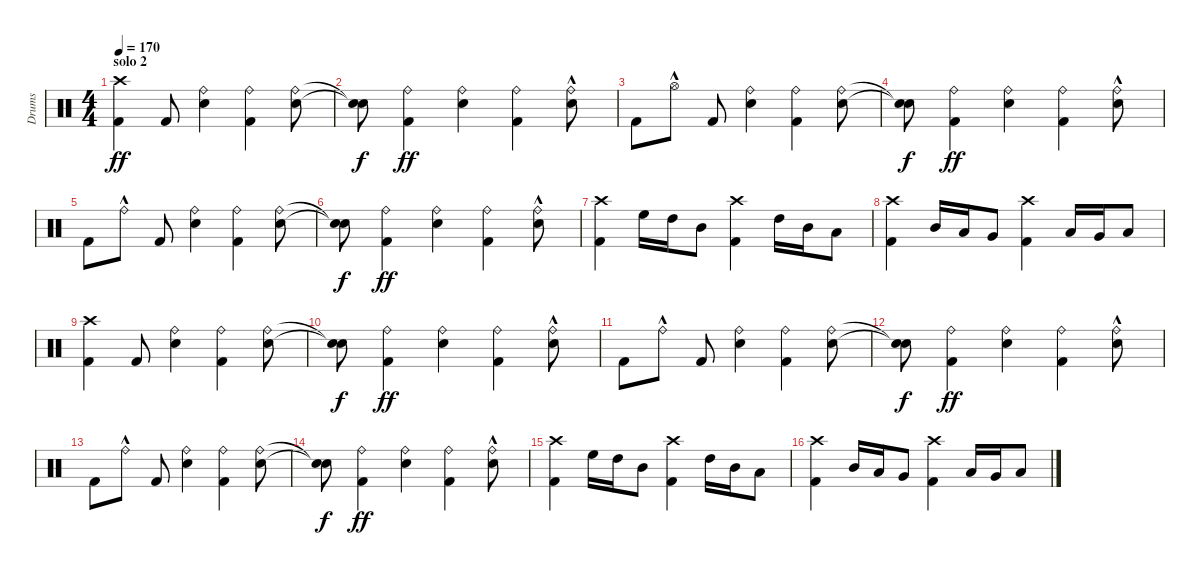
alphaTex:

\track ("Drums" "Drums") {instrument percussion}
\staff {score}
\articulation defaults
\ts (4 4)
\section ("" "solo 2")
\tempo 170
\clef neutral
\ks c
("Kick (hit) 2" "Crash high (hit)").4{dy ff} "Kick (hit) 2".8 ("Snare (hit) 2" "Ride (bell)").4 ("Kick (hit) 2" "Ride (bell)").4 ("Snare (hit) 2" "Ride (bell)").8 |
("Snare (hit)"{t} "Snare (hit)"{t}).8{dy f} ("Kick (hit) 2" "Ride (bell)").4{dy ff} ("Snare (hit) 2" "Ride (bell)").4 ("Kick (hit) 2" "Ride (bell)").4 ("Snare (hit) 2" "Ride (bell)"{hac}).8 |
"Kick (hit) 2".8 "Hi-Hat (open)"{hac}.8 "Kick (hit) 2".8 ("Snare (hit) 2" "Ride (bell)").4 ("Kick (hit) 2" "Ride (bell)").4 ("Snare (hit) 2" "Ride (bell)").8 |
("Snare (hit)"{t} "Snare (hit)"{t}).8{dy f} ("Kick (hit) 2" "Ride (bell)").4{dy ff} ("Snare (hit) 2" "Ride (bell)").4 ("Kick (hit) 2" "Ride (bell)").4 ("Snare (hit) 2" "Ride (bell)"{hac}).8 |
"Kick (hit) 2".8 "Ride (bell)"{hac}.8 "Kick (hit) 2".8 ("Snare (hit) 2" "Ride (bell)").4 ("Kick (hit) 2" "Ride (bell)").4 ("Snare (hit) 2" "Ride (bell)").8 |
("Snare (hit)"{t} "Snare (hit)"{t}).8{dy f} ("Kick (hit) 2" "Ride (bell)").4{dy ff} ("Snare (hit) 2" "Ride (bell)").4 ("Kick (hit) 2" "Ride (bell)").4 ("Snare (hit) 2" "Ride (bell)"{hac}).8 |
("Kick (hit) 2" "Crash high (hit)").4 "High Floor Tom (hit)".16 "High Tom (hit)".16 "Mid Tom (hit)".8 ("Kick (hit) 2" "Crash high (hit)").4 "High Tom (hit)".16 "Mid Tom (hit)".16 "Low Tom (hit)".8 |
("Kick (hit) 2" "Crash high (hit)").4 "Mid Tom (hit)".16 "Low Tom (hit)".16 "Very Low Tom (hit)".8 ("Kick (hit) 2" "Crash high (hit)").4 "Low Tom (hit)".16 "Very Low Tom (hit)".16 "Low Floor Tom (hit)".8 |
("Kick (hit) 2" "Crash high (hit)").4 "Kick (hit) 2".8 ("Snare (hit) 2" "Ride (bell)").4 ("Kick (hit) 2" "Ride (bell)").4 ("Snare (hit) 2" "Ride (bell)").8 |
("Snare (hit)"{t} "Snare (hit)"{t}).8{dy f} ("Kick (hit) 2" "Ride (bell)").4{dy ff} ("Snare (hit) 2" "Ride (bell)").4 ("Kick (hit) 2" "Ride (bell)").4 ("Snare (hit) 2" "Ride (bell)"{hac}).8 |
"Kick (hit) 2".8 "Ride (bell)"{hac}.8 "Kick (hit) 2".8 ("Snare (hit) 2" "Ride (bell)").4 ("Kick (hit) 2" "Ride (bell)").4 ("Snare (hit) 2" "Ride (bell)").8 |
("Snare (hit)"{t} "Snare (hit)"{t}).8{dy f} ("Kick (hit) 2" "Ride (bell)").4{dy ff} ("Snare (hit) 2" "Ride (bell)").4 ("Kick (hit) 2" "Ride (bell)").4 ("Snare (hit) 2" "Ride (bell)"{hac}).8 |
"Kick (hit) 2".8 "Ride (bell)"{hac}.8 "Kick (hit) 2".8 ("Snare (hit) 2" "Ride (bell)").4 ("Kick (hit) 2" "Ride (bell)").4 ("Snare (hit) 2" "Ride (bell)").8 |
("Snare (hit)"{t} "Snare (hit)"{t}).8{dy f} ("Kick (hit) 2" "Ride (bell)").4{dy ff} ("Snare (hit) 2" "Ride (bell)").4 ("Kick (hit) 2" "Ride (bell)").4 ("Snare (hit) 2" "Ride (bell)"{hac}).8 |
("Kick (hit) 2" "Crash high (hit)").4 "High Floor Tom (hit)".16 "High Tom (hit)".16 "Mid Tom (hit)".8 ("Kick (hit) 2" "Crash high (hit)").4 "High Tom (hit)".16 "Mid Tom (hit)".16 "Low Tom (hit)".8 |
("Kick (hit) 2" "Crash high (hit)").4 "Mid Tom (hit)".16 "Low Tom (hit)".16 "Very Low Tom (hit)".8 ("Kick (hit) 2" "Crash high (hit)").4 "Low Tom (hit)".16 "Very Low Tom (hit)".16 "Low Floor Tom (hit)".8
